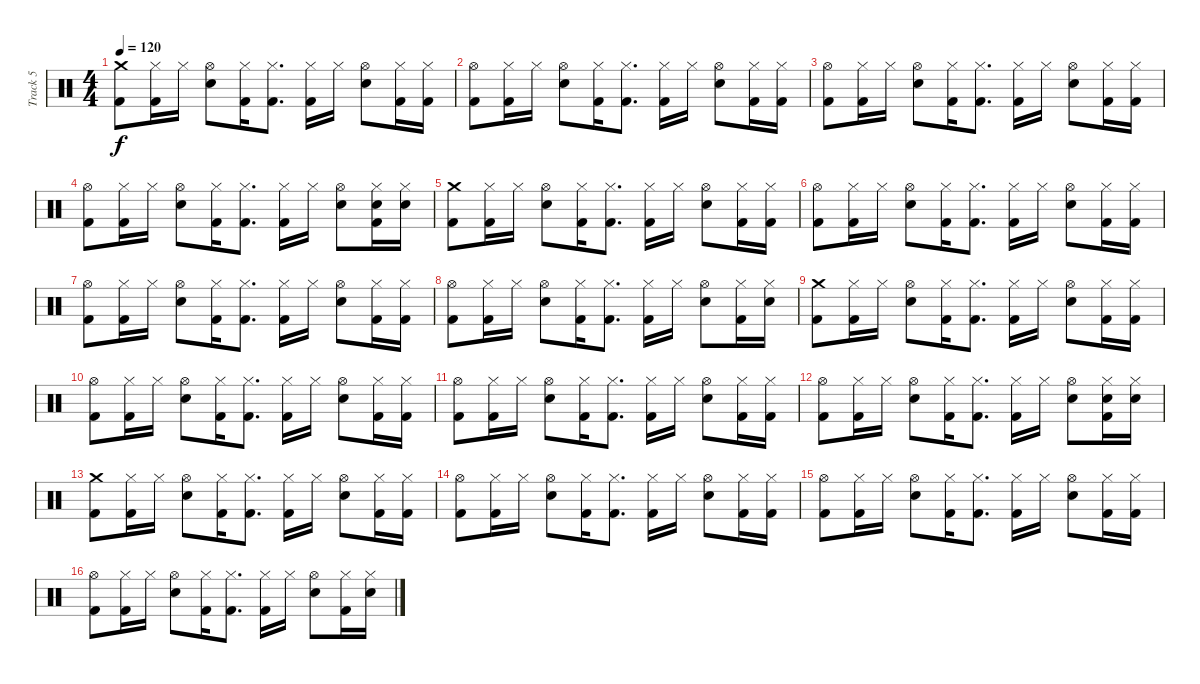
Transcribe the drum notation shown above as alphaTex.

\track ("Track 5" "Track 5") {instrument percussion}
\staff {score}
\articulation defaults
\ts (4 4)
\tempo 120
\clef neutral
\ks c
("Crash medium (hit)" "Kick (hit) 2").8{dy f} ("Hi-Hat (closed)" "Kick (hit) 2").16 "Hi-Hat (closed)".16 ("Hi-Hat (open)" "Snare (hit) 2").8 ("Hi-Hat (closed)" "Kick (hit) 2").16 ("Hi-Hat (closed)" "Kick (hit) 2").8{d} ("Hi-Hat (closed)" "Kick (hit) 2").16 "Hi-Hat (closed)".16 ("Hi-Hat (open)" "Snare (hit) 2").8 ("Hi-Hat (closed)" "Kick (hit) 2").16 ("Hi-Hat (closed)" "Kick (hit) 2").16 |
("Hi-Hat (open)" "Kick (hit) 2").8 ("Hi-Hat (closed)" "Kick (hit) 2").16 "Hi-Hat (closed)".16 ("Hi-Hat (open)" "Snare (hit) 2").8 ("Hi-Hat (closed)" "Kick (hit) 2").16 ("Hi-Hat (closed)" "Kick (hit) 2").8{d} ("Hi-Hat (closed)" "Kick (hit) 2").16 "Hi-Hat (closed)".16 ("Hi-Hat (open)" "Snare (hit) 2").8 ("Hi-Hat (closed)" "Kick (hit) 2").16 ("Hi-Hat (closed)" "Kick (hit) 2").16 |
("Hi-Hat (open)" "Kick (hit) 2").8 ("Hi-Hat (closed)" "Kick (hit) 2").16 "Hi-Hat (closed)".16 ("Hi-Hat (open)" "Snare (hit) 2").8 ("Hi-Hat (closed)" "Kick (hit) 2").16 ("Hi-Hat (closed)" "Kick (hit) 2").8{d} ("Hi-Hat (closed)" "Kick (hit) 2").16 "Hi-Hat (closed)".16 ("Hi-Hat (open)" "Snare (hit) 2").8 ("Hi-Hat (closed)" "Kick (hit) 2").16 ("Hi-Hat (closed)" "Kick (hit) 2").16 |
("Hi-Hat (open)" "Kick (hit) 2").8 ("Hi-Hat (closed)" "Kick (hit) 2").16 "Hi-Hat (closed)".16 ("Hi-Hat (open)" "Snare (hit) 2").8 ("Hi-Hat (closed)" "Kick (hit) 2").16 ("Hi-Hat (closed)" "Kick (hit) 2").8{d} ("Hi-Hat (closed)" "Kick (hit) 2").16 "Hi-Hat (closed)".16 ("Hi-Hat (open)" "Snare (hit) 2").8 ("Hi-Hat (closed)" "Snare (hit) 2" "Kick (hit) 2").16 ("Hi-Hat (closed)" "Snare (hit) 2").16 |
("Crash medium (hit)" "Kick (hit) 2").8 ("Hi-Hat (closed)" "Kick (hit) 2").16 "Hi-Hat (closed)".16 ("Hi-Hat (open)" "Snare (hit) 2").8 ("Hi-Hat (closed)" "Kick (hit) 2").16 ("Hi-Hat (closed)" "Kick (hit) 2").8{d} ("Hi-Hat (closed)" "Kick (hit) 2").16 "Hi-Hat (closed)".16 ("Hi-Hat (open)" "Snare (hit) 2").8 ("Hi-Hat (closed)" "Kick (hit) 2").16 ("Hi-Hat (closed)" "Kick (hit) 2").16 |
("Hi-Hat (open)" "Kick (hit) 2").8 ("Hi-Hat (closed)" "Kick (hit) 2").16 "Hi-Hat (closed)".16 ("Hi-Hat (open)" "Snare (hit) 2").8 ("Hi-Hat (closed)" "Kick (hit) 2").16 ("Hi-Hat (closed)" "Kick (hit) 2").8{d} ("Hi-Hat (closed)" "Kick (hit) 2").16 "Hi-Hat (closed)".16 ("Hi-Hat (open)" "Snare (hit) 2").8 ("Hi-Hat (closed)" "Kick (hit) 2").16 ("Hi-Hat (closed)" "Kick (hit) 2").16 |
("Hi-Hat (open)" "Kick (hit) 2").8 ("Hi-Hat (closed)" "Kick (hit) 2").16 "Hi-Hat (closed)".16 ("Hi-Hat (open)" "Snare (hit) 2").8 ("Hi-Hat (closed)" "Kick (hit) 2").16 ("Hi-Hat (closed)" "Kick (hit) 2").8{d} ("Hi-Hat (closed)" "Kick (hit) 2").16 "Hi-Hat (closed)".16 ("Hi-Hat (open)" "Snare (hit) 2").8 ("Hi-Hat (closed)" "Kick (hit) 2").16 ("Hi-Hat (closed)" "Kick (hit) 2").16 |
("Hi-Hat (open)" "Kick (hit) 2").8 ("Hi-Hat (closed)" "Kick (hit) 2").16 "Hi-Hat (closed)".16 ("Hi-Hat (open)" "Snare (hit) 2").8 ("Hi-Hat (closed)" "Kick (hit) 2").16 ("Hi-Hat (closed)" "Kick (hit) 2").8{d} ("Hi-Hat (closed)" "Kick (hit) 2").16 "Hi-Hat (closed)".16 ("Hi-Hat (open)" "Snare (hit) 2").8 ("Hi-Hat (closed)" "Kick (hit) 2").16 ("Hi-Hat (closed)" "Snare (hit) 2").16 |
("Crash medium (hit)" "Kick (hit) 2").8 ("Hi-Hat (closed)" "Kick (hit) 2").16 "Hi-Hat (closed)".16 ("Hi-Hat (open)" "Snare (hit) 2").8 ("Hi-Hat (closed)" "Kick (hit) 2").16 ("Hi-Hat (closed)" "Kick (hit) 2").8{d} ("Hi-Hat (closed)" "Kick (hit) 2").16 "Hi-Hat (closed)".16 ("Hi-Hat (open)" "Snare (hit) 2").8 ("Hi-Hat (closed)" "Kick (hit) 2").16 ("Hi-Hat (closed)" "Kick (hit) 2").16 |
("Hi-Hat (open)" "Kick (hit) 2").8 ("Hi-Hat (closed)" "Kick (hit) 2").16 "Hi-Hat (closed)".16 ("Hi-Hat (open)" "Snare (hit) 2").8 ("Hi-Hat (closed)" "Kick (hit) 2").16 ("Hi-Hat (closed)" "Kick (hit) 2").8{d} ("Hi-Hat (closed)" "Kick (hit) 2").16 "Hi-Hat (closed)".16 ("Hi-Hat (open)" "Snare (hit) 2").8 ("Hi-Hat (closed)" "Kick (hit) 2").16 ("Hi-Hat (closed)" "Kick (hit) 2").16 |
("Hi-Hat (open)" "Kick (hit) 2").8 ("Hi-Hat (closed)" "Kick (hit) 2").16 "Hi-Hat (closed)".16 ("Hi-Hat (open)" "Snare (hit) 2").8 ("Hi-Hat (closed)" "Kick (hit) 2").16 ("Hi-Hat (closed)" "Kick (hit) 2").8{d} ("Hi-Hat (closed)" "Kick (hit) 2").16 "Hi-Hat (closed)".16 ("Hi-Hat (open)" "Snare (hit) 2").8 ("Hi-Hat (closed)" "Kick (hit) 2").16 ("Hi-Hat (closed)" "Kick (hit) 2").16 |
("Hi-Hat (open)" "Kick (hit) 2").8 ("Hi-Hat (closed)" "Kick (hit) 2").16 "Hi-Hat (closed)".16 ("Hi-Hat (open)" "Snare (hit) 2").8 ("Hi-Hat (closed)" "Kick (hit) 2").16 ("Hi-Hat (closed)" "Kick (hit) 2").8{d} ("Hi-Hat (closed)" "Kick (hit) 2").16 "Hi-Hat (closed)".16 ("Hi-Hat (open)" "Snare (hit) 2").8 ("Hi-Hat (closed)" "Snare (hit) 2" "Kick (hit) 2").16 ("Hi-Hat (closed)" "Snare (hit) 2").16 |
("Crash medium (hit)" "Kick (hit) 2").8 ("Hi-Hat (closed)" "Kick (hit) 2").16 "Hi-Hat (closed)".16 ("Hi-Hat (open)" "Snare (hit) 2").8 ("Hi-Hat (closed)" "Kick (hit) 2").16 ("Hi-Hat (closed)" "Kick (hit) 2").8{d} ("Hi-Hat (closed)" "Kick (hit) 2").16 "Hi-Hat (closed)".16 ("Hi-Hat (open)" "Snare (hit) 2").8 ("Hi-Hat (closed)" "Kick (hit) 2").16 ("Hi-Hat (closed)" "Kick (hit) 2").16 |
("Hi-Hat (open)" "Kick (hit) 2").8 ("Hi-Hat (closed)" "Kick (hit) 2").16 "Hi-Hat (closed)".16 ("Hi-Hat (open)" "Snare (hit) 2").8 ("Hi-Hat (closed)" "Kick (hit) 2").16 ("Hi-Hat (closed)" "Kick (hit) 2").8{d} ("Hi-Hat (closed)" "Kick (hit) 2").16 "Hi-Hat (closed)".16 ("Hi-Hat (open)" "Snare (hit) 2").8 ("Hi-Hat (closed)" "Kick (hit) 2").16 ("Hi-Hat (closed)" "Kick (hit) 2").16 |
("Hi-Hat (open)" "Kick (hit) 2").8 ("Hi-Hat (closed)" "Kick (hit) 2").16 "Hi-Hat (closed)".16 ("Hi-Hat (open)" "Snare (hit) 2").8 ("Hi-Hat (closed)" "Kick (hit) 2").16 ("Hi-Hat (closed)" "Kick (hit) 2").8{d} ("Hi-Hat (closed)" "Kick (hit) 2").16 "Hi-Hat (closed)".16 ("Hi-Hat (open)" "Snare (hit) 2").8 ("Hi-Hat (closed)" "Kick (hit) 2").16 ("Hi-Hat (closed)" "Kick (hit) 2").16 |
("Hi-Hat (open)" "Kick (hit) 2").8 ("Hi-Hat (closed)" "Kick (hit) 2").16 "Hi-Hat (closed)".16 ("Hi-Hat (open)" "Snare (hit) 2").8 ("Hi-Hat (closed)" "Kick (hit) 2").16 ("Hi-Hat (closed)" "Kick (hit) 2").8{d} ("Hi-Hat (closed)" "Kick (hit) 2").16 "Hi-Hat (closed)".16 ("Hi-Hat (open)" "Snare (hit) 2").8 ("Hi-Hat (closed)" "Kick (hit) 2").16 ("Hi-Hat (closed)" "Snare (hit) 2").16
